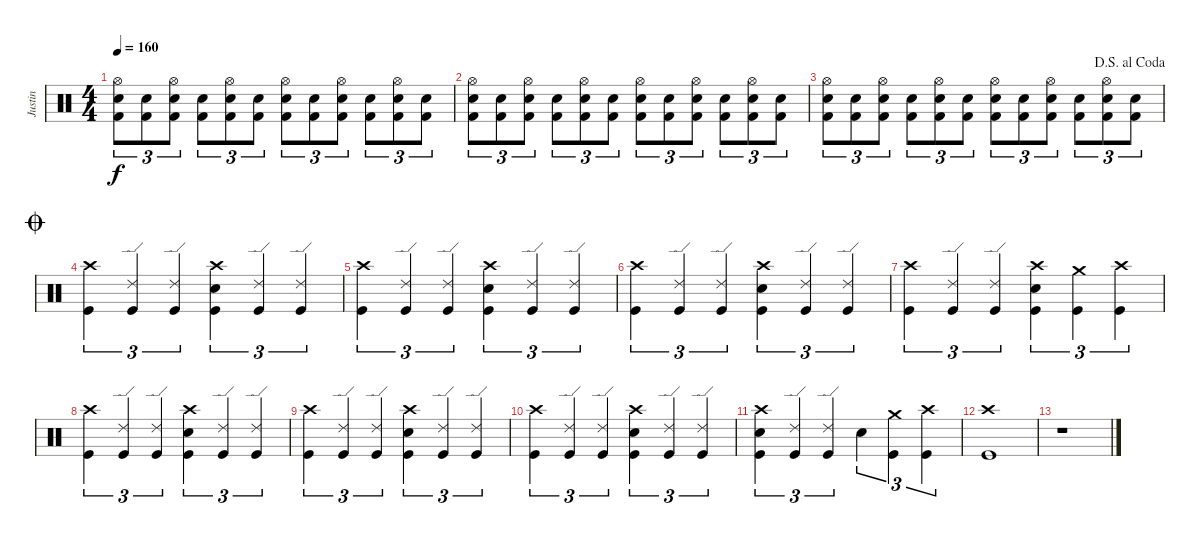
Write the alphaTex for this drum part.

\track ("Justin" "Justin") {instrument percussion}
\staff {score}
\articulation defaults
\ts (4 4)
\tempo 160
\clef neutral
\ks c
("Hi-Hat (open)" "Snare (hit) 2" "Kick (hit) 2").8{tu (3 2) dy f} ("Snare (hit) 2" "Kick (hit) 2").8{tu (3 2)} ("Hi-Hat (open)" "Snare (hit) 2" "Kick (hit) 2").8{tu (3 2)} ("Snare (hit) 2" "Kick (hit) 2").8{tu (3 2)} ("Hi-Hat (open)" "Snare (hit) 2" "Kick (hit) 2").8{tu (3 2)} ("Snare (hit) 2" "Kick (hit) 2").8{tu (3 2)} ("Hi-Hat (open)" "Snare (hit) 2" "Kick (hit) 2").8{tu (3 2)} ("Snare (hit) 2" "Kick (hit) 2").8{tu (3 2)} ("Hi-Hat (open)" "Snare (hit) 2" "Kick (hit) 2").8{tu (3 2)} ("Snare (hit) 2" "Kick (hit) 2").8{tu (3 2)} ("Hi-Hat (open)" "Snare (hit) 2" "Kick (hit) 2").8{tu (3 2)} ("Snare (hit) 2" "Kick (hit) 2").8{tu (3 2)} |
("Hi-Hat (open)" "Snare (hit) 2" "Kick (hit) 2").8{tu (3 2)} ("Snare (hit) 2" "Kick (hit) 2").8{tu (3 2)} ("Hi-Hat (open)" "Snare (hit) 2" "Kick (hit) 2").8{tu (3 2)} ("Snare (hit) 2" "Kick (hit) 2").8{tu (3 2)} ("Hi-Hat (open)" "Snare (hit) 2" "Kick (hit) 2").8{tu (3 2)} ("Snare (hit) 2" "Kick (hit) 2").8{tu (3 2)} ("Hi-Hat (open)" "Snare (hit) 2" "Kick (hit) 2").8{tu (3 2)} ("Snare (hit) 2" "Kick (hit) 2").8{tu (3 2)} ("Hi-Hat (open)" "Snare (hit) 2" "Kick (hit) 2").8{tu (3 2)} ("Snare (hit) 2" "Kick (hit) 2").8{tu (3 2)} ("Hi-Hat (open)" "Snare (hit) 2" "Kick (hit) 2").8{tu (3 2)} ("Snare (hit) 2" "Kick (hit) 2").8{tu (3 2)} |
\jump dalsegnoalcoda
("Hi-Hat (open)" "Snare (hit) 2" "Kick (hit) 2").8{tu (3 2)} ("Snare (hit) 2" "Kick (hit) 2").8{tu (3 2)} ("Hi-Hat (open)" "Snare (hit) 2" "Kick (hit) 2").8{tu (3 2)} ("Snare (hit) 2" "Kick (hit) 2").8{tu (3 2)} ("Hi-Hat (open)" "Snare (hit) 2" "Kick (hit) 2").8{tu (3 2)} ("Snare (hit) 2" "Kick (hit) 2").8{tu (3 2)} ("Hi-Hat (open)" "Snare (hit) 2" "Kick (hit) 2").8{tu (3 2)} ("Snare (hit) 2" "Kick (hit) 2").8{tu (3 2)} ("Hi-Hat (open)" "Snare (hit) 2" "Kick (hit) 2").8{tu (3 2)} ("Snare (hit) 2" "Kick (hit) 2").8{tu (3 2)} ("Hi-Hat (open)" "Snare (hit) 2" "Kick (hit) 2").8{tu (3 2)} ("Snare (hit) 2" "Kick (hit) 2").8{tu (3 2)} |
\jump coda
("Crash high (hit)" "Kick (hit)").4{tu (3 2)} ("Ride (edge) 2" "Kick (hit)").4{tu (3 2)} ("Ride (edge) 2" "Kick (hit)").4{tu (3 2)} ("Electric Snare (hit)" "Crash high (hit)" "Kick (hit)").4{tu (3 2)} ("Ride (edge) 2" "Kick (hit)").4{tu (3 2)} ("Ride (edge) 2" "Kick (hit)").4{tu (3 2)} |
("Crash high (hit)" "Kick (hit)").4{tu (3 2)} ("Ride (edge) 2" "Kick (hit)").4{tu (3 2)} ("Ride (edge) 2" "Kick (hit)").4{tu (3 2)} ("Electric Snare (hit)" "Crash high (hit)" "Kick (hit)").4{tu (3 2)} ("Ride (edge) 2" "Kick (hit)").4{tu (3 2)} ("Ride (edge) 2" "Kick (hit)").4{tu (3 2)} |
("Crash high (hit)" "Kick (hit)").4{tu (3 2)} ("Ride (edge) 2" "Kick (hit)").4{tu (3 2)} ("Ride (edge) 2" "Kick (hit)").4{tu (3 2)} ("Electric Snare (hit)" "Crash high (hit)" "Kick (hit)").4{tu (3 2)} ("Ride (edge) 2" "Kick (hit)").4{tu (3 2)} ("Ride (edge) 2" "Kick (hit)").4{tu (3 2)} |
("Crash high (hit)" "Kick (hit)").4{tu (3 2)} ("Ride (edge) 2" "Kick (hit)").4{tu (3 2)} ("Ride (edge) 2" "Kick (hit)").4{tu (3 2)} ("Electric Snare (hit)" "Crash high (hit)" "Kick (hit)").4{tu (3 2)} ("Crash medium (hit)" "Kick (hit)").4{tu (3 2)} ("Crash high (hit)" "Kick (hit)").4{tu (3 2)} |
("Crash high (hit)" "Kick (hit)").4{tu (3 2)} ("Ride (edge) 2" "Kick (hit)").4{tu (3 2)} ("Ride (edge) 2" "Kick (hit)").4{tu (3 2)} ("Electric Snare (hit)" "Crash high (hit)" "Kick (hit)").4{tu (3 2)} ("Ride (edge) 2" "Kick (hit)").4{tu (3 2)} ("Ride (edge) 2" "Kick (hit)").4{tu (3 2)} |
("Crash high (hit)" "Kick (hit)").4{tu (3 2)} ("Ride (edge) 2" "Kick (hit)").4{tu (3 2)} ("Ride (edge) 2" "Kick (hit)").4{tu (3 2)} ("Electric Snare (hit)" "Crash high (hit)" "Kick (hit)").4{tu (3 2)} ("Ride (edge) 2" "Kick (hit)").4{tu (3 2)} ("Ride (edge) 2" "Kick (hit)").4{tu (3 2)} |
("Crash high (hit)" "Kick (hit)").4{tu (3 2)} ("Ride (edge) 2" "Kick (hit)").4{tu (3 2)} ("Ride (edge) 2" "Kick (hit)").4{tu (3 2)} ("Electric Snare (hit)" "Crash high (hit)" "Kick (hit)").4{tu (3 2)} ("Ride (edge) 2" "Kick (hit)").4{tu (3 2)} ("Ride (edge) 2" "Kick (hit)").4{tu (3 2)} |
("Electric Snare (hit)" "Crash high (hit)" "Kick (hit)").4{tu (3 2)} ("Ride (edge) 2" "Kick (hit)").4{tu (3 2)} ("Ride (edge) 2" "Kick (hit)").4{tu (3 2)} "Electric Snare (hit)".4{tu (3 2)} ("Crash medium (hit)" "Kick (hit)").4{tu (3 2)} ("Crash high (hit)" "Kick (hit)").4{tu (3 2)} |
("Crash high (hit)" "Kick (hit)").1 |
r.1
